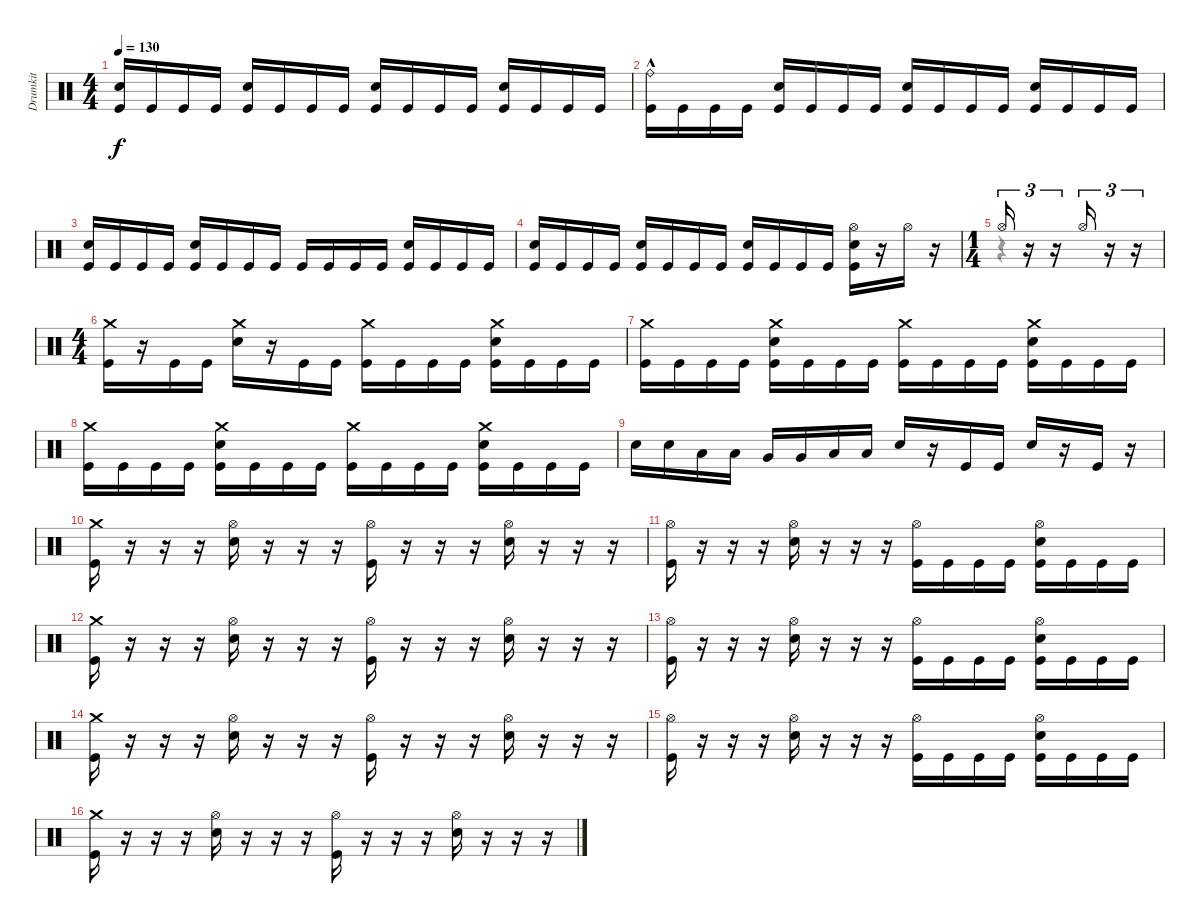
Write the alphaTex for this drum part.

\track ("Drumkit" "Drumkit") {instrument percussion}
\staff {score}
\articulation defaults
\voice
\ts (4 4)
\tempo 130
\clef neutral
\ks c
("Snare (hit) 2" "Kick (hit)").16{dy f} "Kick (hit)".16 "Kick (hit)".16 "Kick (hit)".16 ("Snare (hit) 2" "Kick (hit)").16 "Kick (hit)".16 "Kick (hit)".16 "Kick (hit)".16 ("Snare (hit) 2" "Kick (hit)").16 "Kick (hit)".16 "Kick (hit)".16 "Kick (hit)".16 ("Snare (hit) 2" "Kick (hit)").16 "Kick (hit)".16 "Kick (hit)".16 "Kick (hit)".16 |
("Ride (bell)"{hac} "Kick (hit)").16 "Kick (hit)".16 "Kick (hit)".16 "Kick (hit)".16 ("Snare (hit) 2" "Kick (hit)").16 "Kick (hit)".16 "Kick (hit)".16 "Kick (hit)".16 ("Snare (hit) 2" "Kick (hit)").16 "Kick (hit)".16 "Kick (hit)".16 "Kick (hit)".16 ("Snare (hit) 2" "Kick (hit)").16 "Kick (hit)".16 "Kick (hit)".16 "Kick (hit)".16 |
("Snare (hit) 2" "Kick (hit)").16 "Kick (hit)".16 "Kick (hit)".16 "Kick (hit)".16 ("Snare (hit) 2" "Kick (hit)").16 "Kick (hit)".16 "Kick (hit)".16 "Kick (hit)".16 "Kick (hit)".16 "Kick (hit)".16 "Kick (hit)".16 "Kick (hit)".16 ("Snare (hit) 2" "Kick (hit)").16 "Kick (hit)".16 "Kick (hit)".16 "Kick (hit)".16 |
("Snare (hit) 2" "Kick (hit)").16 "Kick (hit)".16 "Kick (hit)".16 "Kick (hit)".16 ("Snare (hit) 2" "Kick (hit)").16 "Kick (hit)".16 "Kick (hit)".16 "Kick (hit)".16 ("Snare (hit) 2" "Kick (hit)").16 "Kick (hit)".16 "Kick (hit)".16 "Kick (hit)".16 ("Hi-Hat (open)" "Snare (hit) 2" "Kick (hit)").16 r.16 "Hi-Hat (open)".16 r.16 |
\ts (1 4)
"Hi-Hat (open)".16{tu (3 2)} r.16{tu (3 2)} r.16{tu (3 2)} "Hi-Hat (open)".16{tu (3 2)} r.16{tu (3 2)} r.16{tu (3 2)} |
\ts (4 4)
("Crash medium (hit)" "Kick (hit)").16 r.16 "Kick (hit)".16 "Kick (hit)".16 ("Crash medium (hit)" "Snare (hit) 2").16 r.16 "Kick (hit)".16 "Kick (hit)".16 ("Crash medium (hit)" "Kick (hit)").16 "Kick (hit)".16 "Kick (hit)".16 "Kick (hit)".16 ("Crash medium (hit)" "Snare (hit) 2" "Kick (hit)").16 "Kick (hit)".16 "Kick (hit)".16 "Kick (hit)".16 |
("Crash medium (hit)" "Kick (hit)").16 "Kick (hit)".16 "Kick (hit)".16 "Kick (hit)".16 ("Crash medium (hit)" "Snare (hit) 2" "Kick (hit)").16 "Kick (hit)".16 "Kick (hit)".16 "Kick (hit)".16 ("Crash medium (hit)" "Kick (hit)").16 "Kick (hit)".16 "Kick (hit)".16 "Kick (hit)".16 ("Crash medium (hit)" "Snare (hit) 2" "Kick (hit)").16 "Kick (hit)".16 "Kick (hit)".16 "Kick (hit)".16 |
("Crash medium (hit)" "Kick (hit)").16 "Kick (hit)".16 "Kick (hit)".16 "Kick (hit)".16 ("Crash medium (hit)" "Snare (hit) 2" "Kick (hit)").16 "Kick (hit)".16 "Kick (hit)".16 "Kick (hit)".16 ("Crash medium (hit)" "Kick (hit)").16 "Kick (hit)".16 "Kick (hit)".16 "Kick (hit)".16 ("Crash medium (hit)" "Snare (hit) 2" "Kick (hit)").16 "Kick (hit)".16 "Kick (hit)".16 "Kick (hit)".16 |
"Snare (hit) 2".16 "Snare (hit) 2".16 "Low Tom (hit)".16 "Low Tom (hit)".16 "Very Low Tom (hit)".16 "Very Low Tom (hit)".16 "Low Floor Tom (hit)".16 "Low Floor Tom (hit)".16 "Snare (hit) 2".16 r.16 "Kick (hit)".16 "Kick (hit)".16 "Snare (hit) 2".16 r.16 "Kick (hit)".16 r.16 |
("Crash medium (hit)" "Kick (hit)").16 r.16 r.16 r.16 ("Hi-Hat (open)" "Snare (hit) 2").16 r.16 r.16 r.16 ("Hi-Hat (open)" "Kick (hit)").16 r.16 r.16 r.16 ("Hi-Hat (open)" "Snare (hit) 2").16 r.16 r.16 r.16 |
("Hi-Hat (open)" "Kick (hit)").16 r.16 r.16 r.16 ("Hi-Hat (open)" "Snare (hit) 2").16 r.16 r.16 r.16 ("Hi-Hat (open)" "Kick (hit)").16 "Kick (hit)".16 "Kick (hit)".16 "Kick (hit)".16 ("Hi-Hat (open)" "Snare (hit) 2" "Kick (hit)").16 "Kick (hit)".16 "Kick (hit)".16 "Kick (hit)".16 |
("Crash medium (hit)" "Kick (hit)").16 r.16 r.16 r.16 ("Hi-Hat (open)" "Snare (hit) 2").16 r.16 r.16 r.16 ("Hi-Hat (open)" "Kick (hit)").16 r.16 r.16 r.16 ("Hi-Hat (open)" "Snare (hit) 2").16 r.16 r.16 r.16 |
("Hi-Hat (open)" "Kick (hit)").16 r.16 r.16 r.16 ("Hi-Hat (open)" "Snare (hit) 2").16 r.16 r.16 r.16 ("Hi-Hat (open)" "Kick (hit)").16 "Kick (hit)".16 "Kick (hit)".16 "Kick (hit)".16 ("Hi-Hat (open)" "Snare (hit) 2" "Kick (hit)").16 "Kick (hit)".16 "Kick (hit)".16 "Kick (hit)".16 |
("Crash medium (hit)" "Kick (hit)").16 r.16 r.16 r.16 ("Hi-Hat (open)" "Snare (hit) 2").16 r.16 r.16 r.16 ("Hi-Hat (open)" "Kick (hit)").16 r.16 r.16 r.16 ("Hi-Hat (open)" "Snare (hit) 2").16 r.16 r.16 r.16 |
("Hi-Hat (open)" "Kick (hit)").16 r.16 r.16 r.16 ("Hi-Hat (open)" "Snare (hit) 2").16 r.16 r.16 r.16 ("Hi-Hat (open)" "Kick (hit)").16 "Kick (hit)".16 "Kick (hit)".16 "Kick (hit)".16 ("Hi-Hat (open)" "Snare (hit) 2" "Kick (hit)").16 "Kick (hit)".16 "Kick (hit)".16 "Kick (hit)".16 |
("Crash medium (hit)" "Kick (hit)").16 r.16 r.16 r.16 ("Hi-Hat (open)" "Snare (hit) 2").16 r.16 r.16 r.16 ("Hi-Hat (open)" "Kick (hit)").16 r.16 r.16 r.16 ("Hi-Hat (open)" "Snare (hit) 2").16 r.16 r.16 r.16
\voice
\clef neutral
\ottava regular
\simile none
\ks c
|
|
|
|
r.4 |
|
|
|
|
|
|
|
|
|
|
